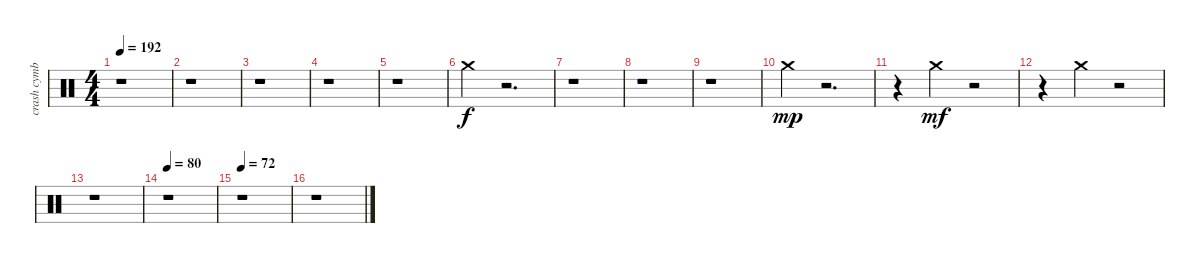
\track ("crash cymbal" "crash cymb") {instrument percussion}
\staff {score}
\articulation defaults
\ts (4 4)
\tempo 192
\clef neutral
\ks c
r.1{dy ff} |
r.1 |
r.1 |
r.1 |
r.1 |
"Crash medium (hit)".4{dy f} r.2{d} |
r.1 |
r.1 |
r.1 |
"Crash medium (hit)".4{dy mp} r.2{d} |
r.4 "Crash medium (hit)".4{dy mf} r.2 |
r.4 "Crash medium (hit)".4 r.2 |
r.1 |
\tempo 80
r.1 |
\tempo 72
r.1 |
r.1
